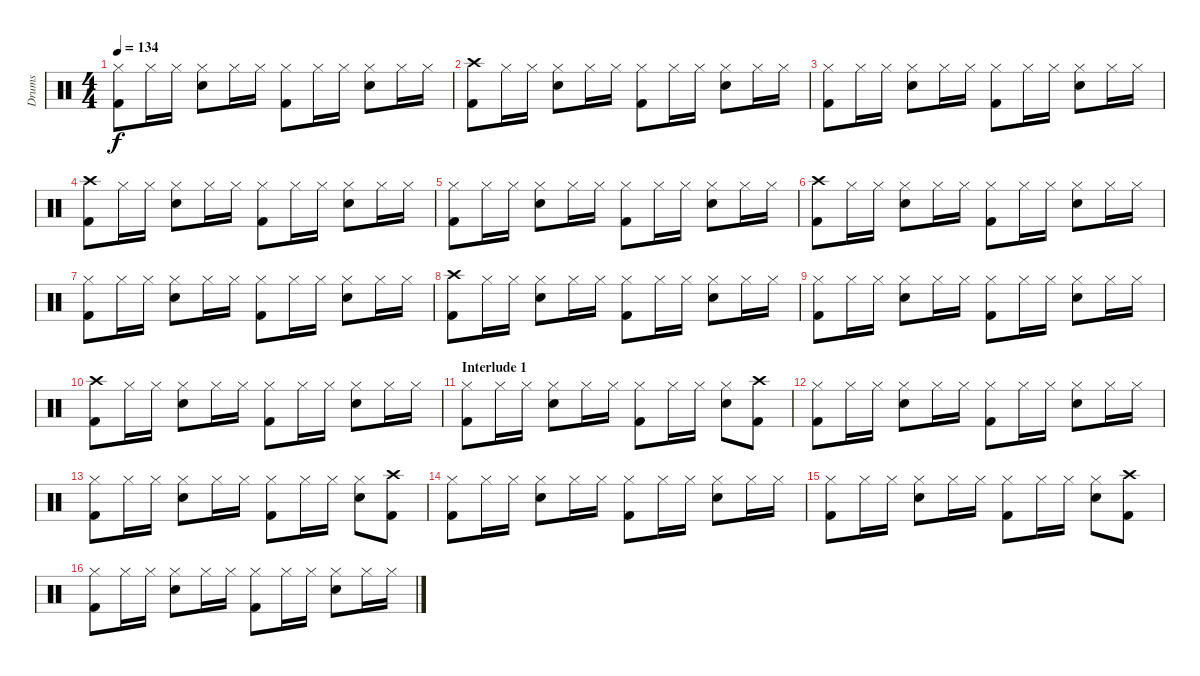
\track ("Drums" "Drums") {instrument percussion}
\staff {score}
\articulation defaults
\ts (4 4)
\tempo 134
\clef neutral
\ks c
("Kick (hit) 2" "Hi-Hat (closed)").8{dy f} "Hi-Hat (closed)".16 "Hi-Hat (closed)".16 ("Snare (hit) 2" "Hi-Hat (closed)").8 "Hi-Hat (closed)".16 "Hi-Hat (closed)".16 ("Kick (hit) 2" "Hi-Hat (closed)").8 "Hi-Hat (closed)".16 "Hi-Hat (closed)".16 ("Snare (hit) 2" "Hi-Hat (closed)").8 "Hi-Hat (closed)".16 "Hi-Hat (closed)".16 |
("Kick (hit) 2" "Crash high (hit)").8 "Hi-Hat (closed)".16 "Hi-Hat (closed)".16 ("Snare (hit) 2" "Hi-Hat (closed)").8 "Hi-Hat (closed)".16 "Hi-Hat (closed)".16 ("Kick (hit) 2" "Hi-Hat (closed)").8 "Hi-Hat (closed)".16 "Hi-Hat (closed)".16 ("Snare (hit) 2" "Hi-Hat (closed)").8 "Hi-Hat (closed)".16 "Hi-Hat (closed)".16 |
("Kick (hit) 2" "Hi-Hat (closed)").8 "Hi-Hat (closed)".16 "Hi-Hat (closed)".16 ("Snare (hit) 2" "Hi-Hat (closed)").8 "Hi-Hat (closed)".16 "Hi-Hat (closed)".16 ("Kick (hit) 2" "Hi-Hat (closed)").8 "Hi-Hat (closed)".16 "Hi-Hat (closed)".16 ("Snare (hit) 2" "Hi-Hat (closed)").8 "Hi-Hat (closed)".16 "Hi-Hat (closed)".16 |
("Kick (hit) 2" "Crash high (hit)").8 "Hi-Hat (closed)".16 "Hi-Hat (closed)".16 ("Snare (hit) 2" "Hi-Hat (closed)").8 "Hi-Hat (closed)".16 "Hi-Hat (closed)".16 ("Kick (hit) 2" "Hi-Hat (closed)").8 "Hi-Hat (closed)".16 "Hi-Hat (closed)".16 ("Snare (hit) 2" "Hi-Hat (closed)").8 "Hi-Hat (closed)".16 "Hi-Hat (closed)".16 |
("Kick (hit) 2" "Hi-Hat (closed)").8 "Hi-Hat (closed)".16 "Hi-Hat (closed)".16 ("Snare (hit) 2" "Hi-Hat (closed)").8 "Hi-Hat (closed)".16 "Hi-Hat (closed)".16 ("Kick (hit) 2" "Hi-Hat (closed)").8 "Hi-Hat (closed)".16 "Hi-Hat (closed)".16 ("Snare (hit) 2" "Hi-Hat (closed)").8 "Hi-Hat (closed)".16 "Hi-Hat (closed)".16 |
("Kick (hit) 2" "Crash high (hit)").8 "Hi-Hat (closed)".16 "Hi-Hat (closed)".16 ("Snare (hit) 2" "Hi-Hat (closed)").8 "Hi-Hat (closed)".16 "Hi-Hat (closed)".16 ("Kick (hit) 2" "Hi-Hat (closed)").8 "Hi-Hat (closed)".16 "Hi-Hat (closed)".16 ("Snare (hit) 2" "Hi-Hat (closed)").8 "Hi-Hat (closed)".16 "Hi-Hat (closed)".16 |
("Kick (hit) 2" "Hi-Hat (closed)").8 "Hi-Hat (closed)".16 "Hi-Hat (closed)".16 ("Snare (hit) 2" "Hi-Hat (closed)").8 "Hi-Hat (closed)".16 "Hi-Hat (closed)".16 ("Kick (hit) 2" "Hi-Hat (closed)").8 "Hi-Hat (closed)".16 "Hi-Hat (closed)".16 ("Snare (hit) 2" "Hi-Hat (closed)").8 "Hi-Hat (closed)".16 "Hi-Hat (closed)".16 |
("Kick (hit) 2" "Crash high (hit)").8 "Hi-Hat (closed)".16 "Hi-Hat (closed)".16 ("Snare (hit) 2" "Hi-Hat (closed)").8 "Hi-Hat (closed)".16 "Hi-Hat (closed)".16 ("Kick (hit) 2" "Hi-Hat (closed)").8 "Hi-Hat (closed)".16 "Hi-Hat (closed)".16 ("Snare (hit) 2" "Hi-Hat (closed)").8 "Hi-Hat (closed)".16 "Hi-Hat (closed)".16 |
("Kick (hit) 2" "Hi-Hat (closed)").8 "Hi-Hat (closed)".16 "Hi-Hat (closed)".16 ("Snare (hit) 2" "Hi-Hat (closed)").8 "Hi-Hat (closed)".16 "Hi-Hat (closed)".16 ("Kick (hit) 2" "Hi-Hat (closed)").8 "Hi-Hat (closed)".16 "Hi-Hat (closed)".16 ("Snare (hit) 2" "Hi-Hat (closed)").8 "Hi-Hat (closed)".16 "Hi-Hat (closed)".16 |
("Kick (hit) 2" "Crash high (hit)").8 "Hi-Hat (closed)".16 "Hi-Hat (closed)".16 ("Snare (hit) 2" "Hi-Hat (closed)").8 "Hi-Hat (closed)".16 "Hi-Hat (closed)".16 ("Kick (hit) 2" "Hi-Hat (closed)").8 "Hi-Hat (closed)".16 "Hi-Hat (closed)".16 ("Snare (hit) 2" "Hi-Hat (closed)").8 "Hi-Hat (closed)".16 "Hi-Hat (closed)".16 |
\section ("" "Interlude 1")
("Kick (hit) 2" "Hi-Hat (closed)").8 "Hi-Hat (closed)".16 "Hi-Hat (closed)".16 ("Snare (hit) 2" "Hi-Hat (closed)").8 "Hi-Hat (closed)".16 "Hi-Hat (closed)".16 ("Kick (hit) 2" "Hi-Hat (closed)").8 "Hi-Hat (closed)".16 "Hi-Hat (closed)".16 ("Snare (hit) 2" "Hi-Hat (closed)").8 ("Kick (hit) 2" "Crash high (hit)").8 |
("Kick (hit) 2" "Hi-Hat (closed)").8 "Hi-Hat (closed)".16 "Hi-Hat (closed)".16 ("Snare (hit) 2" "Hi-Hat (closed)").8 "Hi-Hat (closed)".16 "Hi-Hat (closed)".16 ("Kick (hit) 2" "Hi-Hat (closed)").8 "Hi-Hat (closed)".16 "Hi-Hat (closed)".16 ("Snare (hit) 2" "Hi-Hat (closed)").8 "Hi-Hat (closed)".16 "Hi-Hat (closed)".16 |
("Kick (hit) 2" "Hi-Hat (closed)").8 "Hi-Hat (closed)".16 "Hi-Hat (closed)".16 ("Snare (hit) 2" "Hi-Hat (closed)").8 "Hi-Hat (closed)".16 "Hi-Hat (closed)".16 ("Kick (hit) 2" "Hi-Hat (closed)").8 "Hi-Hat (closed)".16 "Hi-Hat (closed)".16 ("Snare (hit) 2" "Hi-Hat (closed)").8 ("Kick (hit) 2" "Crash high (hit)").8 |
("Kick (hit) 2" "Hi-Hat (closed)").8 "Hi-Hat (closed)".16 "Hi-Hat (closed)".16 ("Snare (hit) 2" "Hi-Hat (closed)").8 "Hi-Hat (closed)".16 "Hi-Hat (closed)".16 ("Kick (hit) 2" "Hi-Hat (closed)").8 "Hi-Hat (closed)".16 "Hi-Hat (closed)".16 ("Snare (hit) 2" "Hi-Hat (closed)").8 "Hi-Hat (closed)".16 "Hi-Hat (closed)".16 |
("Kick (hit) 2" "Hi-Hat (closed)").8 "Hi-Hat (closed)".16 "Hi-Hat (closed)".16 ("Snare (hit) 2" "Hi-Hat (closed)").8 "Hi-Hat (closed)".16 "Hi-Hat (closed)".16 ("Kick (hit) 2" "Hi-Hat (closed)").8 "Hi-Hat (closed)".16 "Hi-Hat (closed)".16 ("Snare (hit) 2" "Hi-Hat (closed)").8 ("Kick (hit) 2" "Crash high (hit)").8 |
("Kick (hit) 2" "Hi-Hat (closed)").8 "Hi-Hat (closed)".16 "Hi-Hat (closed)".16 ("Snare (hit) 2" "Hi-Hat (closed)").8 "Hi-Hat (closed)".16 "Hi-Hat (closed)".16 ("Kick (hit) 2" "Hi-Hat (closed)").8 "Hi-Hat (closed)".16 "Hi-Hat (closed)".16 ("Snare (hit) 2" "Hi-Hat (closed)").8 "Hi-Hat (closed)".16 "Hi-Hat (closed)".16
